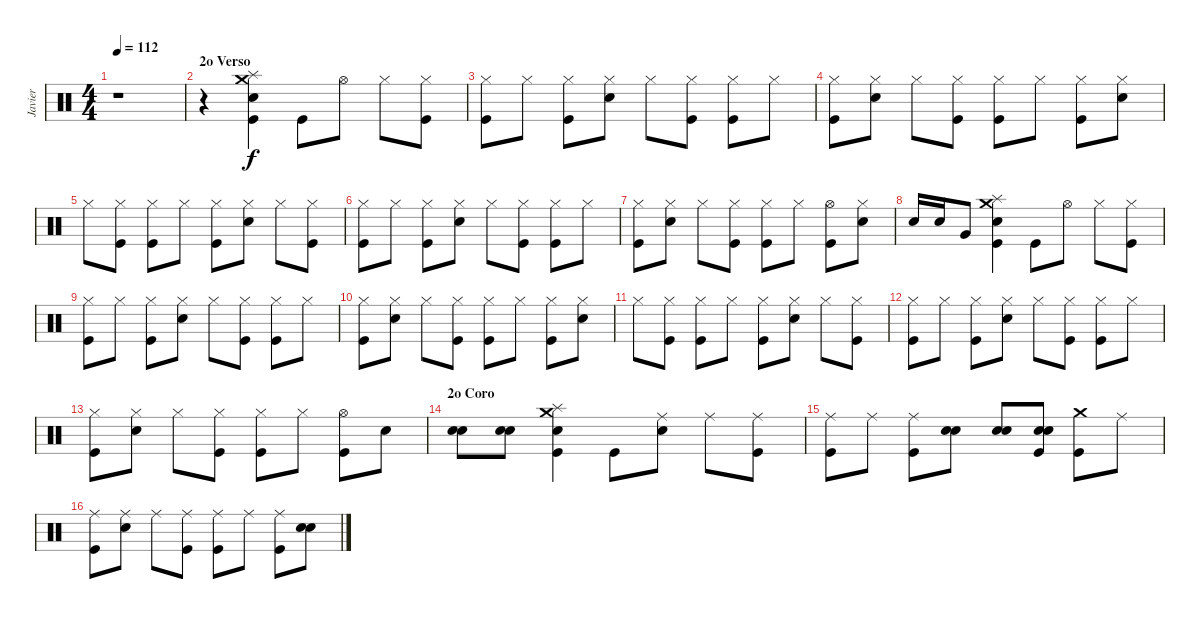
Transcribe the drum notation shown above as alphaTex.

\track ("Javier" "Javier") {instrument percussion}
\staff {score}
\articulation defaults
\ts (4 4)
\tempo 112
\clef neutral
\ks c
r.1{dy mp} |
\section ("" "2o Verso")
r.4 ("Crash medium (hit)" "Splash (hit)" "Snare (hit) 2" "Kick (hit)").4{dy f} "Kick (hit)".8 "Hi-Hat (open)".8 "Hi-Hat (closed)".8 ("Hi-Hat (closed)" "Kick (hit)").8 |
("Hi-Hat (closed)" "Kick (hit)").8 "Hi-Hat (closed)".8 ("Hi-Hat (closed)" "Kick (hit)").8 ("Hi-Hat (closed)" "Snare (hit) 2").8 "Hi-Hat (closed)".8 ("Hi-Hat (closed)" "Kick (hit)").8 ("Hi-Hat (closed)" "Kick (hit)").8 "Hi-Hat (closed)".8 |
("Hi-Hat (closed)" "Kick (hit)").8 ("Hi-Hat (closed)" "Snare (hit) 2").8 "Hi-Hat (closed)".8 ("Hi-Hat (closed)" "Kick (hit)").8 ("Hi-Hat (closed)" "Kick (hit)").8 "Hi-Hat (closed)".8 ("Hi-Hat (closed)" "Kick (hit)").8 ("Hi-Hat (closed)" "Snare (hit) 2").8 |
"Hi-Hat (closed)".8 ("Hi-Hat (closed)" "Kick (hit)").8 ("Hi-Hat (closed)" "Kick (hit)").8 "Hi-Hat (closed)".8 ("Hi-Hat (closed)" "Kick (hit)").8 ("Hi-Hat (closed)" "Snare (hit) 2").8 "Hi-Hat (closed)".8 ("Hi-Hat (closed)" "Kick (hit)").8 |
("Hi-Hat (closed)" "Kick (hit)").8 "Hi-Hat (closed)".8 ("Hi-Hat (closed)" "Kick (hit)").8 ("Hi-Hat (closed)" "Snare (hit) 2").8 "Hi-Hat (closed)".8 ("Hi-Hat (closed)" "Kick (hit)").8 ("Hi-Hat (closed)" "Kick (hit)").8 "Hi-Hat (closed)".8 |
("Hi-Hat (closed)" "Kick (hit)").8 ("Hi-Hat (closed)" "Snare (hit) 2").8 "Hi-Hat (closed)".8 ("Hi-Hat (closed)" "Kick (hit)").8 ("Hi-Hat (closed)" "Kick (hit)").8 "Hi-Hat (closed)".8 ("Hi-Hat (open)" "Kick (hit)").8 ("Hi-Hat (closed)" "Snare (hit) 2").8 |
"Snare (hit) 2".16 "Snare (hit) 2".16 "Very Low Tom (hit)".8 ("Crash medium (hit)" "Splash (hit)" "Snare (hit) 2" "Kick (hit)").4 "Kick (hit)".8 "Hi-Hat (open)".8 "Hi-Hat (closed)".8 ("Hi-Hat (closed)" "Kick (hit)").8 |
("Hi-Hat (closed)" "Kick (hit)").8 "Hi-Hat (closed)".8 ("Hi-Hat (closed)" "Kick (hit)").8 ("Hi-Hat (closed)" "Snare (hit) 2").8 "Hi-Hat (closed)".8 ("Hi-Hat (closed)" "Kick (hit)").8 ("Hi-Hat (closed)" "Kick (hit)").8 "Hi-Hat (closed)".8 |
("Hi-Hat (closed)" "Kick (hit)").8 ("Hi-Hat (closed)" "Snare (hit) 2").8 "Hi-Hat (closed)".8 ("Hi-Hat (closed)" "Kick (hit)").8 ("Hi-Hat (closed)" "Kick (hit)").8 "Hi-Hat (closed)".8 ("Hi-Hat (closed)" "Kick (hit)").8 ("Hi-Hat (closed)" "Snare (hit) 2").8 |
"Hi-Hat (closed)".8 ("Hi-Hat (closed)" "Kick (hit)").8 ("Hi-Hat (closed)" "Kick (hit)").8 "Hi-Hat (closed)".8 ("Hi-Hat (closed)" "Kick (hit)").8 ("Hi-Hat (closed)" "Snare (hit) 2").8 "Hi-Hat (closed)".8 ("Hi-Hat (closed)" "Kick (hit)").8 |
("Hi-Hat (closed)" "Kick (hit)").8 "Hi-Hat (closed)".8 ("Hi-Hat (closed)" "Kick (hit)").8 ("Hi-Hat (closed)" "Snare (hit) 2").8 "Hi-Hat (closed)".8 ("Hi-Hat (closed)" "Kick (hit)").8 ("Hi-Hat (closed)" "Kick (hit)").8 "Hi-Hat (closed)".8 |
("Hi-Hat (closed)" "Kick (hit)").8 ("Hi-Hat (closed)" "Snare (hit) 2").8 "Hi-Hat (closed)".8 ("Hi-Hat (closed)" "Kick (hit)").8 ("Hi-Hat (closed)" "Kick (hit)").8 "Hi-Hat (closed)".8 ("Hi-Hat (open)" "Kick (hit)").8 "Snare (hit) 2".8 |
\section ("" "2o Coro")
("Snare (hit) 2" "Snare (hit) 2").8 ("Snare (hit) 2" "Snare (hit) 2").8 ("Crash medium (hit)" "Splash (hit)" "Snare (hit) 2" "Kick (hit)").4 "Kick (hit)".8 ("Ride (middle)" "Snare (hit) 2").8 "Ride (middle)".8 ("Ride (middle)" "Kick (hit)").8 |
("Ride (middle)" "Kick (hit)").8 "Ride (middle)".8 ("Ride (middle)" "Kick (hit)").8 ("Snare (hit) 2" "Snare (hit) 2").8 ("Snare (hit) 2" "Snare (hit) 2").8 ("Snare (hit) 2" "Snare (hit) 2" "Kick (hit)").8 ("Crash medium (hit)" "Kick (hit)").8 "Ride (middle)".8 |
("Ride (middle)" "Kick (hit)").8 ("Ride (middle)" "Snare (hit) 2").8 "Ride (middle)".8 ("Ride (middle)" "Kick (hit)").8 ("Ride (middle)" "Kick (hit)").8 "Ride (middle)".8 ("Ride (middle)" "Kick (hit)").8 ("Snare (hit) 2" "Snare (hit) 2").8
